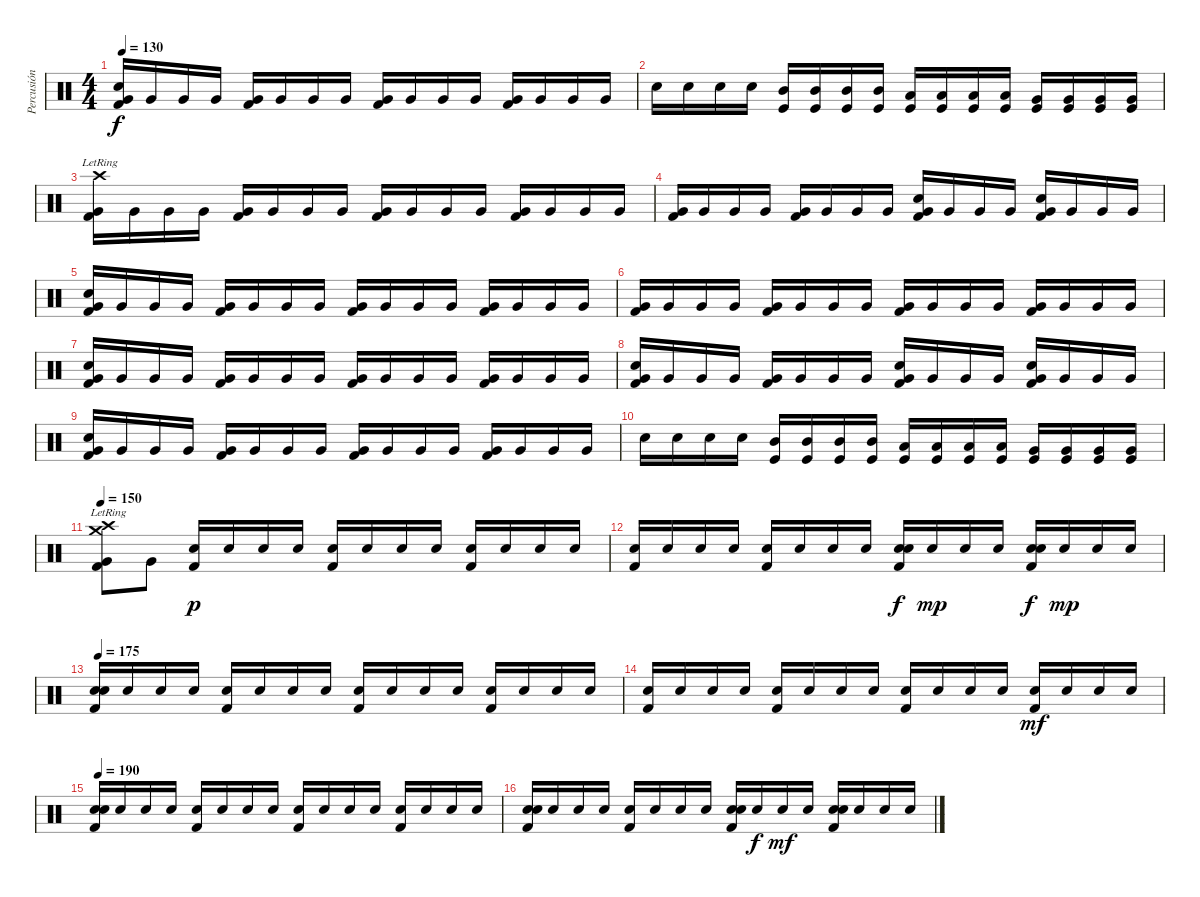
\track ("Percusión" "Percusión") {instrument percussion}
\staff {score}
\articulation defaults
\ts (4 4)
\tempo 130
\clef neutral
\ks c
("Electric Snare (hit)" "Very Low Tom (hit)" "Kick (hit) 2").16{dy f} "Very Low Tom (hit)".16 "Very Low Tom (hit)".16 "Very Low Tom (hit)".16 ("Very Low Tom (hit)" "Kick (hit) 2").16 "Very Low Tom (hit)".16 "Very Low Tom (hit)".16 "Very Low Tom (hit)".16 ("Very Low Tom (hit)" "Kick (hit) 2").16 "Very Low Tom (hit)".16 "Very Low Tom (hit)".16 "Very Low Tom (hit)".16 ("Very Low Tom (hit)" "Kick (hit) 2").16 "Very Low Tom (hit)".16 "Very Low Tom (hit)".16 "Very Low Tom (hit)".16 |
"Electric Snare (hit)".16 "Electric Snare (hit)".16 "Electric Snare (hit)".16 "Electric Snare (hit)".16 ("Mid Tom (hit)" "Kick (hit)").16 ("Mid Tom (hit)" "Kick (hit)").16 ("Mid Tom (hit)" "Kick (hit)").16 ("Mid Tom (hit)" "Kick (hit)").16 ("Low Tom (hit)" "Kick (hit)").16 ("Low Tom (hit)" "Kick (hit)").16 ("Low Tom (hit)" "Kick (hit)").16 ("Low Tom (hit)" "Kick (hit)").16 ("Very Low Tom (hit)" "Kick (hit)").16 ("Very Low Tom (hit)" "Kick (hit)").16 ("Very Low Tom (hit)" "Kick (hit)").16 ("Very Low Tom (hit)" "Kick (hit)").16 |
("Crash high (hit)"{lr} "Very Low Tom (hit)" "Kick (hit) 2").16 "Very Low Tom (hit)".16 "Very Low Tom (hit)".16 "Very Low Tom (hit)".16 ("Very Low Tom (hit)" "Kick (hit) 2").16 "Very Low Tom (hit)".16 "Very Low Tom (hit)".16 "Very Low Tom (hit)".16 ("Very Low Tom (hit)" "Kick (hit) 2").16 "Very Low Tom (hit)".16 "Very Low Tom (hit)".16 "Very Low Tom (hit)".16 ("Very Low Tom (hit)" "Kick (hit) 2").16 "Very Low Tom (hit)".16 "Very Low Tom (hit)".16 "Very Low Tom (hit)".16 |
("Very Low Tom (hit)" "Kick (hit) 2").16 "Very Low Tom (hit)".16 "Very Low Tom (hit)".16 "Very Low Tom (hit)".16 ("Very Low Tom (hit)" "Kick (hit) 2").16 "Very Low Tom (hit)".16 "Very Low Tom (hit)".16 "Very Low Tom (hit)".16 ("Electric Snare (hit)" "Very Low Tom (hit)" "Kick (hit) 2").16 "Very Low Tom (hit)".16 "Very Low Tom (hit)".16 "Very Low Tom (hit)".16 ("Electric Snare (hit)" "Very Low Tom (hit)" "Kick (hit) 2").16 "Very Low Tom (hit)".16 "Very Low Tom (hit)".16 "Very Low Tom (hit)".16 |
("Electric Snare (hit)" "Very Low Tom (hit)" "Kick (hit) 2").16 "Very Low Tom (hit)".16 "Very Low Tom (hit)".16 "Very Low Tom (hit)".16 ("Very Low Tom (hit)" "Kick (hit) 2").16 "Very Low Tom (hit)".16 "Very Low Tom (hit)".16 "Very Low Tom (hit)".16 ("Very Low Tom (hit)" "Kick (hit) 2").16 "Very Low Tom (hit)".16 "Very Low Tom (hit)".16 "Very Low Tom (hit)".16 ("Very Low Tom (hit)" "Kick (hit) 2").16 "Very Low Tom (hit)".16 "Very Low Tom (hit)".16 "Very Low Tom (hit)".16 |
("Very Low Tom (hit)" "Kick (hit) 2").16 "Very Low Tom (hit)".16 "Very Low Tom (hit)".16 "Very Low Tom (hit)".16 ("Very Low Tom (hit)" "Kick (hit) 2").16 "Very Low Tom (hit)".16 "Very Low Tom (hit)".16 "Very Low Tom (hit)".16 ("Very Low Tom (hit)" "Kick (hit) 2").16 "Very Low Tom (hit)".16 "Very Low Tom (hit)".16 "Very Low Tom (hit)".16 ("Very Low Tom (hit)" "Kick (hit) 2").16 "Very Low Tom (hit)".16 "Very Low Tom (hit)".16 "Very Low Tom (hit)".16 |
("Electric Snare (hit)" "Very Low Tom (hit)" "Kick (hit) 2").16 "Very Low Tom (hit)".16 "Very Low Tom (hit)".16 "Very Low Tom (hit)".16 ("Very Low Tom (hit)" "Kick (hit) 2").16 "Very Low Tom (hit)".16 "Very Low Tom (hit)".16 "Very Low Tom (hit)".16 ("Very Low Tom (hit)" "Kick (hit) 2").16 "Very Low Tom (hit)".16 "Very Low Tom (hit)".16 "Very Low Tom (hit)".16 ("Very Low Tom (hit)" "Kick (hit) 2").16 "Very Low Tom (hit)".16 "Very Low Tom (hit)".16 "Very Low Tom (hit)".16 |
("Electric Snare (hit)" "Very Low Tom (hit)" "Kick (hit) 2").16 "Very Low Tom (hit)".16 "Very Low Tom (hit)".16 "Very Low Tom (hit)".16 ("Very Low Tom (hit)" "Kick (hit) 2").16 "Very Low Tom (hit)".16 "Very Low Tom (hit)".16 "Very Low Tom (hit)".16 ("Electric Snare (hit)" "Very Low Tom (hit)" "Kick (hit) 2").16 "Very Low Tom (hit)".16 "Very Low Tom (hit)".16 "Very Low Tom (hit)".16 ("Electric Snare (hit)" "Very Low Tom (hit)" "Kick (hit) 2").16 "Very Low Tom (hit)".16 "Very Low Tom (hit)".16 "Very Low Tom (hit)".16 |
("Electric Snare (hit)" "Very Low Tom (hit)" "Kick (hit) 2").16 "Very Low Tom (hit)".16 "Very Low Tom (hit)".16 "Very Low Tom (hit)".16 ("Very Low Tom (hit)" "Kick (hit) 2").16 "Very Low Tom (hit)".16 "Very Low Tom (hit)".16 "Very Low Tom (hit)".16 ("Very Low Tom (hit)" "Kick (hit) 2").16 "Very Low Tom (hit)".16 "Very Low Tom (hit)".16 "Very Low Tom (hit)".16 ("Very Low Tom (hit)" "Kick (hit) 2").16 "Very Low Tom (hit)".16 "Very Low Tom (hit)".16 "Very Low Tom (hit)".16 |
"Electric Snare (hit)".16 "Electric Snare (hit)".16 "Electric Snare (hit)".16 "Electric Snare (hit)".16 ("Mid Tom (hit)" "Kick (hit)").16 ("Mid Tom (hit)" "Kick (hit)").16 ("Mid Tom (hit)" "Kick (hit)").16 ("Mid Tom (hit)" "Kick (hit)").16 ("Low Tom (hit)" "Kick (hit)").16 ("Low Tom (hit)" "Kick (hit)").16 ("Low Tom (hit)" "Kick (hit)").16 ("Low Tom (hit)" "Kick (hit)").16 ("Very Low Tom (hit)" "Kick (hit)").16 ("Very Low Tom (hit)" "Kick (hit)").16 ("Very Low Tom (hit)" "Kick (hit)").16 ("Very Low Tom (hit)" "Kick (hit)").16 |
\tempo 150
("Crash high (hit)"{lr} "Crash medium (hit)"{lr} "Very Low Tom (hit)" "Kick (hit) 2").8 "Very Low Tom (hit)".8 ("Electric Snare (hit)" "Kick (hit) 2").16{dy p} "Electric Snare (hit)".16 "Electric Snare (hit)".16 "Electric Snare (hit)".16 ("Electric Snare (hit)" "Kick (hit) 2").16 "Electric Snare (hit)".16 "Electric Snare (hit)".16 "Electric Snare (hit)".16 ("Electric Snare (hit)" "Kick (hit) 2").16 "Electric Snare (hit)".16 "Electric Snare (hit)".16 "Electric Snare (hit)".16 |
("Electric Snare (hit)" "Kick (hit) 2").16 "Electric Snare (hit)".16 "Electric Snare (hit)".16 "Electric Snare (hit)".16 ("Electric Snare (hit)" "Kick (hit) 2").16 "Electric Snare (hit)".16 "Electric Snare (hit)".16 "Electric Snare (hit)".16 ("Electric Snare (hit)" "Electric Snare (hit)" "Kick (hit) 2").16{dy f} "Electric Snare (hit)".16{dy mp} "Electric Snare (hit)".16 "Electric Snare (hit)".16 ("Electric Snare (hit)" "Electric Snare (hit)" "Kick (hit) 2").16{dy f} "Electric Snare (hit)".16{dy mp} "Electric Snare (hit)".16 "Electric Snare (hit)".16 |
\tempo 175
("Electric Snare (hit)" "Electric Snare (hit)" "Kick (hit) 2").16 "Electric Snare (hit)".16 "Electric Snare (hit)".16 "Electric Snare (hit)".16 ("Electric Snare (hit)" "Kick (hit) 2").16 "Electric Snare (hit)".16 "Electric Snare (hit)".16 "Electric Snare (hit)".16 ("Electric Snare (hit)" "Kick (hit) 2").16 "Electric Snare (hit)".16 "Electric Snare (hit)".16 "Electric Snare (hit)".16 ("Electric Snare (hit)" "Kick (hit) 2").16 "Electric Snare (hit)".16 "Electric Snare (hit)".16 "Electric Snare (hit)".16 |
("Electric Snare (hit)" "Kick (hit) 2").16 "Electric Snare (hit)".16 "Electric Snare (hit)".16 "Electric Snare (hit)".16 ("Electric Snare (hit)" "Kick (hit) 2").16 "Electric Snare (hit)".16 "Electric Snare (hit)".16 "Electric Snare (hit)".16 ("Electric Snare (hit)" "Kick (hit) 2").16 "Electric Snare (hit)".16 "Electric Snare (hit)".16 "Electric Snare (hit)".16 ("Electric Snare (hit)" "Kick (hit) 2").16{dy mf} "Electric Snare (hit)".16 "Electric Snare (hit)".16 "Electric Snare (hit)".16 |
\tempo 190
("Electric Snare (hit)" "Electric Snare (hit)" "Kick (hit) 2").16 "Electric Snare (hit)".16 "Electric Snare (hit)".16 "Electric Snare (hit)".16 ("Electric Snare (hit)" "Kick (hit) 2").16 "Electric Snare (hit)".16 "Electric Snare (hit)".16 "Electric Snare (hit)".16 ("Electric Snare (hit)" "Kick (hit) 2").16 "Electric Snare (hit)".16 "Electric Snare (hit)".16 "Electric Snare (hit)".16 ("Electric Snare (hit)" "Kick (hit) 2").16 "Electric Snare (hit)".16 "Electric Snare (hit)".16 "Electric Snare (hit)".16 |
("Electric Snare (hit)" "Electric Snare (hit)" "Kick (hit) 2").16 "Electric Snare (hit)".16 "Electric Snare (hit)".16 "Electric Snare (hit)".16 ("Electric Snare (hit)" "Kick (hit) 2").16 "Electric Snare (hit)".16 "Electric Snare (hit)".16 "Electric Snare (hit)".16 ("Electric Snare (hit)" "Electric Snare (hit)" "Kick (hit) 2").16 "Electric Snare (hit)".16{dy f} "Electric Snare (hit)".16{dy mf} "Electric Snare (hit)".16 ("Electric Snare (hit)" "Electric Snare (hit)" "Kick (hit) 2").16 "Electric Snare (hit)".16 "Electric Snare (hit)".16 "Electric Snare (hit)".16
